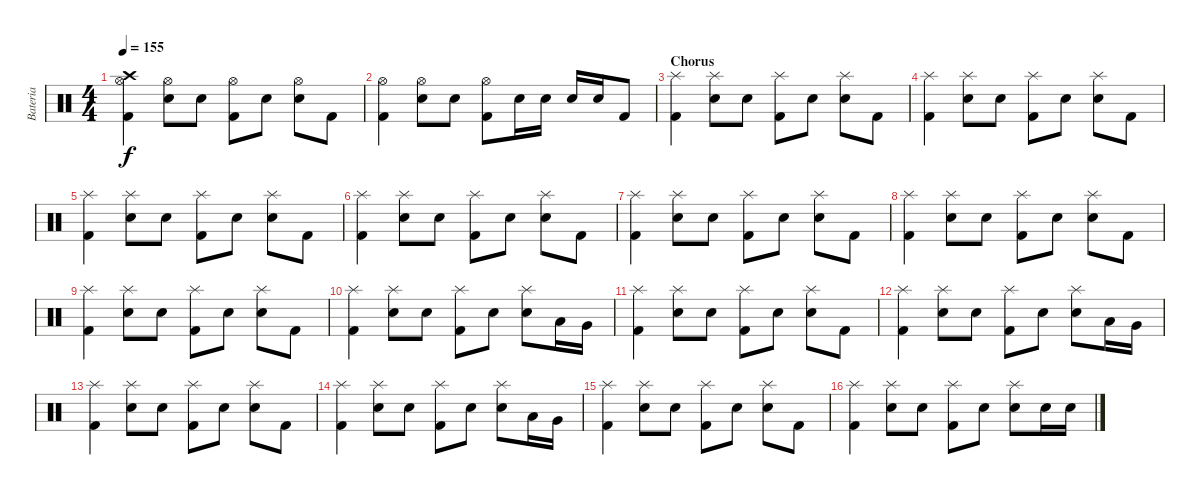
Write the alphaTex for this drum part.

\track ("Bateria" "Bateria") {instrument percussion}
\staff {score}
\articulation defaults
\ts (4 4)
\tempo 155
\clef neutral
\ks c
("Crash high (hit)" "Hi-Hat (open)" "Kick (hit) 2").4{dy f} ("Hi-Hat (open)" "Electric Snare (hit)").8 "Electric Snare (hit)".8 ("Hi-Hat (open)" "Kick (hit) 2").8 "Electric Snare (hit)".8 ("Hi-Hat (open)" "Electric Snare (hit)").8 "Kick (hit) 2".8 |
("Hi-Hat (open)" "Kick (hit) 2").4 ("Hi-Hat (open)" "Electric Snare (hit)").8 "Electric Snare (hit)".8 ("Hi-Hat (open)" "Kick (hit) 2").8 "Electric Snare (hit)".16 "Electric Snare (hit)".16 "Electric Snare (hit)".16 "Electric Snare (hit)".16 "Kick (hit) 2".8 |
\section ("" "Chorus")
("Splash (hit)" "Kick (hit) 2").4 ("Splash (hit)" "Electric Snare (hit)").8 "Electric Snare (hit)".8 ("Splash (hit)" "Kick (hit) 2").8 "Electric Snare (hit)".8 ("Splash (hit)" "Electric Snare (hit)").8 "Kick (hit) 2".8 |
("Splash (hit)" "Kick (hit) 2").4 ("Splash (hit)" "Electric Snare (hit)").8 "Electric Snare (hit)".8 ("Splash (hit)" "Kick (hit) 2").8 "Electric Snare (hit)".8 ("Splash (hit)" "Electric Snare (hit)").8 "Kick (hit) 2".8 |
("Splash (hit)" "Kick (hit) 2").4 ("Splash (hit)" "Electric Snare (hit)").8 "Electric Snare (hit)".8 ("Splash (hit)" "Kick (hit) 2").8 "Electric Snare (hit)".8 ("Splash (hit)" "Electric Snare (hit)").8 "Kick (hit) 2".8 |
("Splash (hit)" "Kick (hit) 2").4 ("Splash (hit)" "Electric Snare (hit)").8 "Electric Snare (hit)".8 ("Splash (hit)" "Kick (hit) 2").8 "Electric Snare (hit)".8 ("Splash (hit)" "Electric Snare (hit)").8 "Kick (hit) 2".8 |
("Splash (hit)" "Kick (hit) 2").4 ("Splash (hit)" "Electric Snare (hit)").8 "Electric Snare (hit)".8 ("Splash (hit)" "Kick (hit) 2").8 "Electric Snare (hit)".8 ("Splash (hit)" "Electric Snare (hit)").8 "Kick (hit) 2".8 |
("Splash (hit)" "Kick (hit) 2").4 ("Splash (hit)" "Electric Snare (hit)").8 "Electric Snare (hit)".8 ("Splash (hit)" "Kick (hit) 2").8 "Electric Snare (hit)".8 ("Splash (hit)" "Electric Snare (hit)").8 "Kick (hit) 2".8 |
("Splash (hit)" "Kick (hit) 2").4 ("Splash (hit)" "Electric Snare (hit)").8 "Electric Snare (hit)".8 ("Splash (hit)" "Kick (hit) 2").8 "Electric Snare (hit)".8 ("Splash (hit)" "Electric Snare (hit)").8 "Kick (hit) 2".8 |
("Splash (hit)" "Kick (hit) 2").4 ("Splash (hit)" "Electric Snare (hit)").8 "Electric Snare (hit)".8 ("Splash (hit)" "Kick (hit) 2").8 "Electric Snare (hit)".8 ("Splash (hit)" "Electric Snare (hit)").8 "Low Tom (hit)".16 "Very Low Tom (hit)".16 |
("Splash (hit)" "Kick (hit) 2").4 ("Splash (hit)" "Electric Snare (hit)").8 "Electric Snare (hit)".8 ("Splash (hit)" "Kick (hit) 2").8 "Electric Snare (hit)".8 ("Splash (hit)" "Electric Snare (hit)").8 "Kick (hit) 2".8 |
("Splash (hit)" "Kick (hit) 2").4 ("Splash (hit)" "Electric Snare (hit)").8 "Electric Snare (hit)".8 ("Splash (hit)" "Kick (hit) 2").8 "Electric Snare (hit)".8 ("Splash (hit)" "Electric Snare (hit)").8 "Low Tom (hit)".16 "Very Low Tom (hit)".16 |
("Splash (hit)" "Kick (hit) 2").4 ("Splash (hit)" "Electric Snare (hit)").8 "Electric Snare (hit)".8 ("Splash (hit)" "Kick (hit) 2").8 "Electric Snare (hit)".8 ("Splash (hit)" "Electric Snare (hit)").8 "Kick (hit) 2".8 |
("Splash (hit)" "Kick (hit) 2").4 ("Splash (hit)" "Electric Snare (hit)").8 "Electric Snare (hit)".8 ("Splash (hit)" "Kick (hit) 2").8 "Electric Snare (hit)".8 ("Splash (hit)" "Electric Snare (hit)").8 "Low Tom (hit)".16 "Very Low Tom (hit)".16 |
("Splash (hit)" "Kick (hit) 2").4 ("Splash (hit)" "Electric Snare (hit)").8 "Electric Snare (hit)".8 ("Splash (hit)" "Kick (hit) 2").8 "Electric Snare (hit)".8 ("Splash (hit)" "Electric Snare (hit)").8 "Kick (hit) 2".8 |
("Splash (hit)" "Kick (hit) 2").4 ("Splash (hit)" "Electric Snare (hit)").8 "Electric Snare (hit)".8 ("Splash (hit)" "Kick (hit) 2").8 "Electric Snare (hit)".8 ("Splash (hit)" "Electric Snare (hit)").8 "Electric Snare (hit)".16 "Electric Snare (hit)".16
